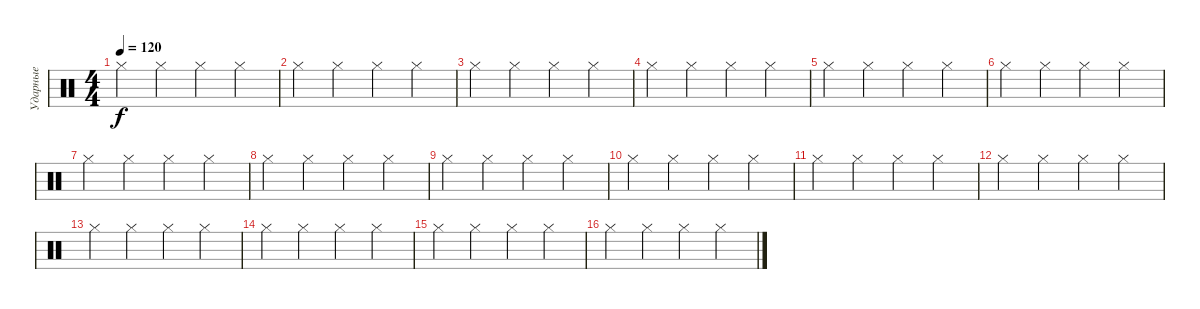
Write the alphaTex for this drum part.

\track ("Ударные" "Ударные") {instrument percussion}
\staff {score}
\articulation defaults
\ts (4 4)
\tempo 120
\clef neutral
\ks c "Hi-Hat (closed)".4{dy f} "Hi-Hat (closed)".4 "Hi-Hat (closed)".4 "Hi-Hat (closed)".4
|
"Hi-Hat (closed)".4 "Hi-Hat (closed)".4 "Hi-Hat (closed)".4 "Hi-Hat (closed)".4 |
"Hi-Hat (closed)".4 "Hi-Hat (closed)".4 "Hi-Hat (closed)".4 "Hi-Hat (closed)".4 |
"Hi-Hat (closed)".4 "Hi-Hat (closed)".4 "Hi-Hat (closed)".4 "Hi-Hat (closed)".4 |
"Hi-Hat (closed)".4 "Hi-Hat (closed)".4 "Hi-Hat (closed)".4 "Hi-Hat (closed)".4 |
"Hi-Hat (closed)".4 "Hi-Hat (closed)".4 "Hi-Hat (closed)".4 "Hi-Hat (closed)".4 |
"Hi-Hat (closed)".4 "Hi-Hat (closed)".4 "Hi-Hat (closed)".4 "Hi-Hat (closed)".4 |
"Hi-Hat (closed)".4 "Hi-Hat (closed)".4 "Hi-Hat (closed)".4 "Hi-Hat (closed)".4 |
"Hi-Hat (closed)".4 "Hi-Hat (closed)".4 "Hi-Hat (closed)".4 "Hi-Hat (closed)".4 |
"Hi-Hat (closed)".4 "Hi-Hat (closed)".4 "Hi-Hat (closed)".4 "Hi-Hat (closed)".4 |
"Hi-Hat (closed)".4 "Hi-Hat (closed)".4 "Hi-Hat (closed)".4 "Hi-Hat (closed)".4 |
"Hi-Hat (closed)".4 "Hi-Hat (closed)".4 "Hi-Hat (closed)".4 "Hi-Hat (closed)".4 |
"Hi-Hat (closed)".4 "Hi-Hat (closed)".4 "Hi-Hat (closed)".4 "Hi-Hat (closed)".4 |
"Hi-Hat (closed)".4 "Hi-Hat (closed)".4 "Hi-Hat (closed)".4 "Hi-Hat (closed)".4 |
"Hi-Hat (closed)".4 "Hi-Hat (closed)".4 "Hi-Hat (closed)".4 "Hi-Hat (closed)".4 |
"Hi-Hat (closed)".4 "Hi-Hat (closed)".4 "Hi-Hat (closed)".4 "Hi-Hat (closed)".4
